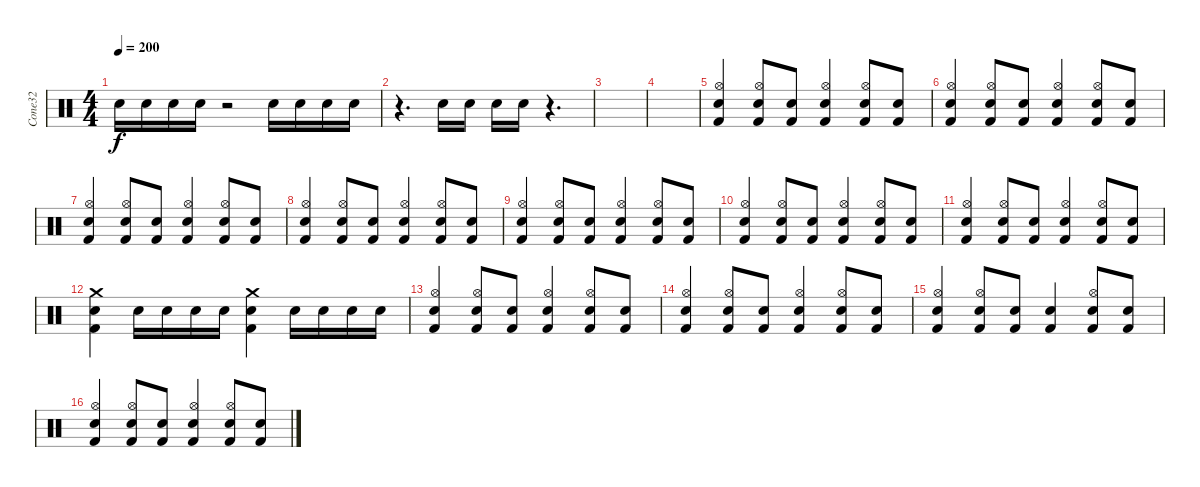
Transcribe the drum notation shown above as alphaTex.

\track ("Cone32" "Cone32") {instrument percussion}
\staff {score}
\articulation defaults
\ts (4 4)
\tempo 200
\clef neutral
\ks c "Snare (hit) 2".16{dy f} "Snare (hit) 2".16 "Snare (hit) 2".16 "Snare (hit) 2".16
r.2 "Snare (hit) 2".16 "Snare (hit) 2".16 "Snare (hit) 2".16 "Snare (hit) 2".16 |
r.4{d} "Snare (hit) 2".16 "Snare (hit) 2".16 "Snare (hit) 2".16 "Snare (hit) 2".16 r.4{d} |
|
|
("Hi-Hat (open)" "Snare (hit) 2" "Kick (hit) 2").4 ("Hi-Hat (open)" "Snare (hit) 2" "Kick (hit) 2").8 ("Snare (hit) 2" "Kick (hit) 2").8 ("Hi-Hat (open)" "Snare (hit) 2" "Kick (hit) 2").4 ("Hi-Hat (open)" "Snare (hit) 2" "Kick (hit) 2").8 ("Snare (hit) 2" "Kick (hit) 2").8 |
("Hi-Hat (open)" "Snare (hit) 2" "Kick (hit) 2").4 ("Hi-Hat (open)" "Snare (hit) 2" "Kick (hit) 2").8 ("Snare (hit) 2" "Kick (hit) 2").8 ("Hi-Hat (open)" "Snare (hit) 2" "Kick (hit) 2").4 ("Hi-Hat (open)" "Snare (hit) 2" "Kick (hit) 2").8 ("Snare (hit) 2" "Kick (hit) 2").8 |
("Hi-Hat (open)" "Snare (hit) 2" "Kick (hit) 2").4 ("Hi-Hat (open)" "Snare (hit) 2" "Kick (hit) 2").8 ("Snare (hit) 2" "Kick (hit) 2").8 ("Hi-Hat (open)" "Snare (hit) 2" "Kick (hit) 2").4 ("Hi-Hat (open)" "Snare (hit) 2" "Kick (hit) 2").8 ("Snare (hit) 2" "Kick (hit) 2").8 |
("Hi-Hat (open)" "Snare (hit) 2" "Kick (hit) 2").4 ("Hi-Hat (open)" "Snare (hit) 2" "Kick (hit) 2").8 ("Snare (hit) 2" "Kick (hit) 2").8 ("Hi-Hat (open)" "Snare (hit) 2" "Kick (hit) 2").4 ("Hi-Hat (open)" "Snare (hit) 2" "Kick (hit) 2").8 ("Snare (hit) 2" "Kick (hit) 2").8 |
("Hi-Hat (open)" "Snare (hit) 2" "Kick (hit) 2").4 ("Hi-Hat (open)" "Snare (hit) 2" "Kick (hit) 2").8 ("Snare (hit) 2" "Kick (hit) 2").8 ("Hi-Hat (open)" "Snare (hit) 2" "Kick (hit) 2").4 ("Hi-Hat (open)" "Snare (hit) 2" "Kick (hit) 2").8 ("Snare (hit) 2" "Kick (hit) 2").8 |
("Hi-Hat (open)" "Snare (hit) 2" "Kick (hit) 2").4 ("Hi-Hat (open)" "Snare (hit) 2" "Kick (hit) 2").8 ("Snare (hit) 2" "Kick (hit) 2").8 ("Hi-Hat (open)" "Snare (hit) 2" "Kick (hit) 2").4 ("Hi-Hat (open)" "Snare (hit) 2" "Kick (hit) 2").8 ("Snare (hit) 2" "Kick (hit) 2").8 |
("Hi-Hat (open)" "Snare (hit) 2" "Kick (hit) 2").4 ("Hi-Hat (open)" "Snare (hit) 2" "Kick (hit) 2").8 ("Snare (hit) 2" "Kick (hit) 2").8 ("Hi-Hat (open)" "Snare (hit) 2" "Kick (hit) 2").4 ("Hi-Hat (open)" "Snare (hit) 2" "Kick (hit) 2").8 ("Snare (hit) 2" "Kick (hit) 2").8 |
("Crash medium (hit)" "Snare (hit) 2" "Kick (hit) 2").4 "Snare (hit) 2".16 "Snare (hit) 2".16 "Snare (hit) 2".16 "Snare (hit) 2".16 ("Crash medium (hit)" "Snare (hit) 2" "Kick (hit) 2").4 "Snare (hit) 2".16 "Snare (hit) 2".16 "Snare (hit) 2".16 "Snare (hit) 2".16 |
("Hi-Hat (open)" "Snare (hit) 2" "Kick (hit) 2").4 ("Hi-Hat (open)" "Snare (hit) 2" "Kick (hit) 2").8 ("Snare (hit) 2" "Kick (hit) 2").8 ("Hi-Hat (open)" "Snare (hit) 2" "Kick (hit) 2").4 ("Hi-Hat (open)" "Snare (hit) 2" "Kick (hit) 2").8 ("Snare (hit) 2" "Kick (hit) 2").8 |
("Hi-Hat (open)" "Snare (hit) 2" "Kick (hit) 2").4 ("Hi-Hat (open)" "Snare (hit) 2" "Kick (hit) 2").8 ("Snare (hit) 2" "Kick (hit) 2").8 ("Hi-Hat (open)" "Snare (hit) 2" "Kick (hit) 2").4 ("Hi-Hat (open)" "Snare (hit) 2" "Kick (hit) 2").8 ("Snare (hit) 2" "Kick (hit) 2").8 |
("Hi-Hat (open)" "Snare (hit) 2" "Kick (hit) 2").4 ("Hi-Hat (open)" "Snare (hit) 2" "Kick (hit) 2").8 ("Snare (hit) 2" "Kick (hit) 2").8 ("Snare (hit) 2" "Kick (hit) 2").4 ("Hi-Hat (open)" "Snare (hit) 2" "Kick (hit) 2").8 ("Snare (hit) 2" "Kick (hit) 2").8 |
("Hi-Hat (open)" "Snare (hit) 2" "Kick (hit) 2").4 ("Hi-Hat (open)" "Snare (hit) 2" "Kick (hit) 2").8 ("Snare (hit) 2" "Kick (hit) 2").8 ("Hi-Hat (open)" "Snare (hit) 2" "Kick (hit) 2").4 ("Hi-Hat (open)" "Snare (hit) 2" "Kick (hit) 2").8 ("Snare (hit) 2" "Kick (hit) 2").8
